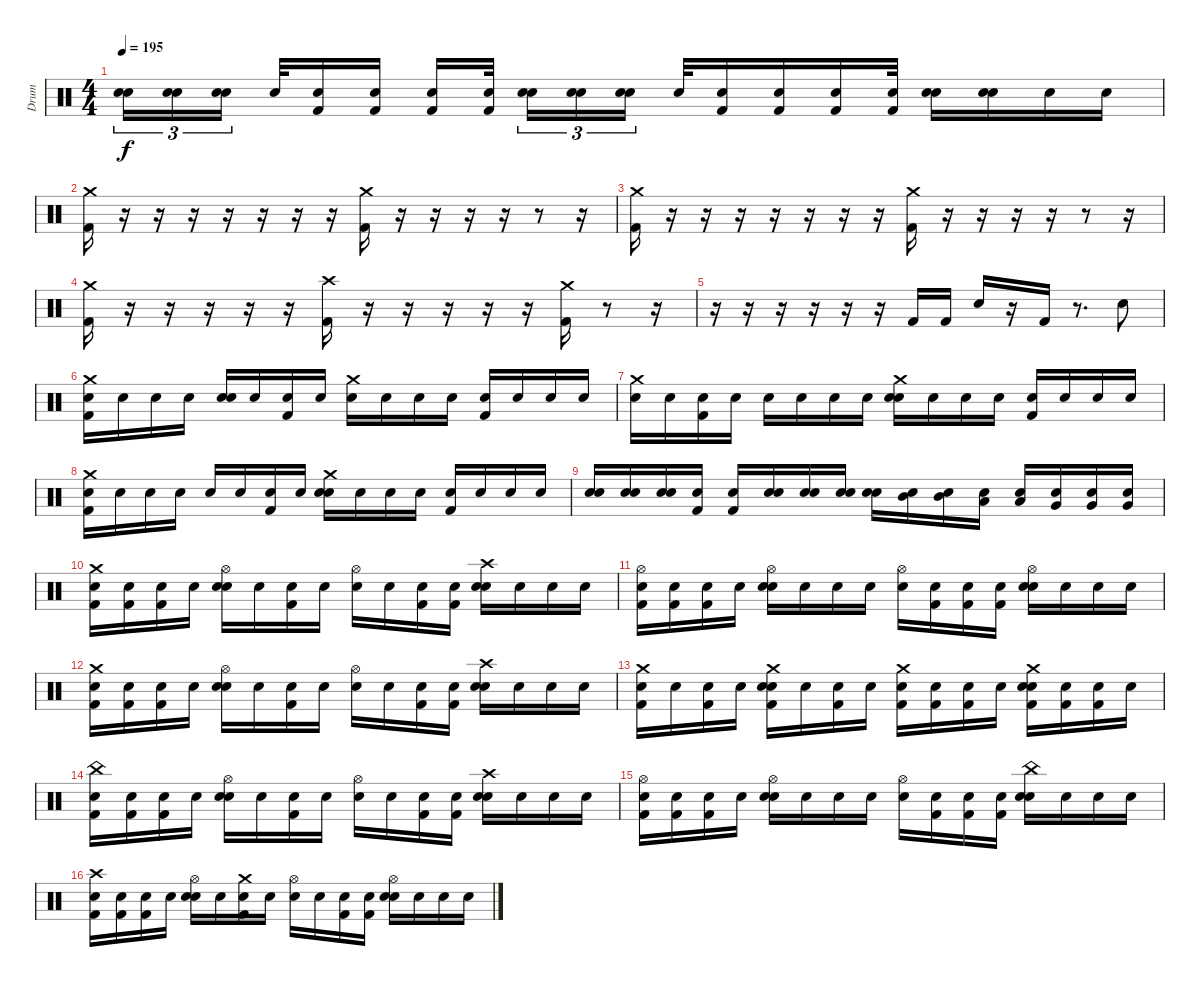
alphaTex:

\track ("Drum" "Drum") {instrument percussion}
\staff {score}
\articulation defaults
\ts (4 4)
\tempo 195
\clef neutral
\ks c
("Snare (hit) 2" "Snare (hit)").16{tu (3 2) dy f} ("Snare (hit) 2" "Snare (hit)").16{tu (3 2)} ("Snare (hit) 2" "Snare (hit)").16{tu (3 2) beam splitsecondary} "Snare (hit)".32 ("Snare (hit)" "Kick (hit) 2").16 ("Snare (hit)" "Kick (hit) 2").16 ("Snare (hit)" "Kick (hit) 2").16 ("Snare (hit)" "Kick (hit) 2").32{beam splitsecondary} ("Snare (hit) 2" "Snare (hit)").16{tu (3 2)} ("Snare (hit) 2" "Snare (hit)").16{tu (3 2)} ("Snare (hit) 2" "Snare (hit)").16{tu (3 2)} "Snare (hit)".32 ("Snare (hit)" "Kick (hit) 2").16 ("Snare (hit)" "Kick (hit) 2").16 ("Snare (hit)" "Kick (hit) 2").16 ("Snare (hit)" "Kick (hit) 2").32 ("Snare (hit) 2" "Snare (hit)").16 ("Snare (hit) 2" "Snare (hit)").16 "Snare (hit) 2".16 "Snare (hit) 2".16 |
("Crash medium (hit)" "Kick (hit) 2").16 r.16 r.16 r.16 r.16 r.16 r.16 r.16 ("Crash medium (hit)" "Kick (hit) 2").16 r.16 r.16 r.16 r.16 r.8 r.16 |
("Crash medium (hit)" "Kick (hit) 2").16 r.16 r.16 r.16 r.16 r.16 r.16 r.16 ("Crash medium (hit)" "Kick (hit) 2").16 r.16 r.16 r.16 r.16 r.8 r.16 |
("Crash medium (hit)" "Kick (hit) 2").16 r.16 r.16 r.16 r.16 r.16 ("Crash high (hit)" "Kick (hit) 2").16 r.16 r.16 r.16 r.16 r.16 ("Crash medium (hit)" "Kick (hit) 2").16 r.8 r.16 |
r.16 r.16 r.16 r.16 r.16 r.16 "Kick (hit) 2".16 "Kick (hit) 2".16 "Snare (hit) 2".16 r.16 "Kick (hit) 2".16 r.8{d} "Snare (hit) 2".8 |
("Crash medium (hit)" "Snare (hit)" "Kick (hit) 2").16 "Snare (hit)".16 "Snare (hit)".16 "Snare (hit)".16 ("Snare (hit)" "Snare (hit) 2").16 "Snare (hit)".16 ("Snare (hit)" "Kick (hit) 2").16 "Snare (hit)".16 ("Crash medium (hit)" "Snare (hit)").16 "Snare (hit)".16 "Snare (hit)".16 "Snare (hit)".16 ("Snare (hit)" "Kick (hit) 2").16 "Snare (hit)".16 "Snare (hit)".16 "Snare (hit)".16 |
("Crash medium (hit)" "Snare (hit)").16 "Snare (hit)".16 ("Snare (hit)" "Kick (hit) 2").16 "Snare (hit)".16 "Snare (hit)".16 "Snare (hit)".16 "Snare (hit)".16 "Snare (hit)".16 ("Crash medium (hit)" "Snare (hit)" "Snare (hit) 2").16 "Snare (hit)".16 "Snare (hit)".16 "Snare (hit)".16 ("Snare (hit)" "Kick (hit) 2").16 "Snare (hit)".16 "Snare (hit)".16 "Snare (hit)".16 |
("Crash medium (hit)" "Snare (hit)" "Kick (hit) 2").16 "Snare (hit)".16 "Snare (hit)".16 "Snare (hit)".16 "Snare (hit)".16 "Snare (hit)".16 ("Snare (hit)" "Kick (hit) 2").16 "Snare (hit)".16 ("Crash medium (hit)" "Snare (hit)" "Snare (hit) 2").16 "Snare (hit)".16 "Snare (hit)".16 "Snare (hit)".16 ("Snare (hit)" "Kick (hit) 2").16 "Snare (hit)".16 "Snare (hit)".16 "Snare (hit)".16 |
("Snare (hit)" "Snare (hit) 2").16 ("Snare (hit)" "Snare (hit) 2").16 ("Snare (hit)" "Snare (hit) 2").16 ("Snare (hit)" "Kick (hit) 2").16 ("Snare (hit)" "Kick (hit) 2").16 ("Snare (hit)" "Snare (hit) 2").16 ("Snare (hit)" "Snare (hit) 2").16 ("Snare (hit)" "Snare (hit) 2").16 ("Snare (hit)" "Snare (hit) 2").16 ("Snare (hit)" "Mid Tom (hit)").16 ("Snare (hit)" "Mid Tom (hit)").16 ("Snare (hit)" "Low Tom (hit)").16 ("Snare (hit)" "Low Tom (hit)").16 ("Snare (hit)" "Very Low Tom (hit)").16 ("Snare (hit)" "Very Low Tom (hit)").16 ("Snare (hit)" "Very Low Tom (hit)").16 |
("Crash medium (hit)" "Snare (hit)" "Kick (hit) 2").16 ("Snare (hit)" "Kick (hit) 2").16 ("Snare (hit)" "Kick (hit) 2").16 "Snare (hit)".16 ("Hi-Hat (open)" "Snare (hit) 2" "Snare (hit)").16 "Snare (hit)".16 ("Snare (hit)" "Kick (hit) 2").16 "Snare (hit)".16 ("Hi-Hat (open)" "Snare (hit)").16 "Snare (hit)".16 ("Snare (hit)" "Kick (hit) 2").16 ("Snare (hit)" "Kick (hit) 2").16 ("Crash high (hit)" "Snare (hit) 2" "Snare (hit)").16 "Snare (hit)".16 "Snare (hit)".16 "Snare (hit)".16 |
("Hi-Hat (open)" "Snare (hit)" "Kick (hit) 2").16 ("Snare (hit)" "Kick (hit) 2").16 ("Snare (hit)" "Kick (hit) 2").16 "Snare (hit)".16 ("Hi-Hat (open)" "Snare (hit) 2" "Snare (hit)").16 "Snare (hit)".16 "Snare (hit)".16 "Snare (hit)".16 ("Hi-Hat (open)" "Snare (hit)").16 ("Snare (hit)" "Kick (hit) 2").16 ("Snare (hit)" "Kick (hit) 2").16 ("Snare (hit)" "Kick (hit) 2").16 ("Hi-Hat (open)" "Snare (hit) 2" "Snare (hit)").16 "Snare (hit)".16 "Snare (hit)".16 "Snare (hit)".16 |
("Crash medium (hit)" "Snare (hit)" "Kick (hit) 2").16 ("Snare (hit)" "Kick (hit) 2").16 ("Snare (hit)" "Kick (hit) 2").16 "Snare (hit)".16 ("Hi-Hat (open)" "Snare (hit) 2" "Snare (hit)").16 "Snare (hit)".16 ("Snare (hit)" "Kick (hit) 2").16 "Snare (hit)".16 ("Hi-Hat (open)" "Snare (hit)").16 "Snare (hit)".16 ("Snare (hit)" "Kick (hit) 2").16 ("Snare (hit)" "Kick (hit) 2").16 ("Crash high (hit)" "Snare (hit) 2" "Snare (hit)").16 "Snare (hit)".16 "Snare (hit)".16 "Snare (hit)".16 |
("Crash medium (hit)" "Snare (hit)" "Kick (hit) 2").16 "Snare (hit)".16 ("Snare (hit)" "Kick (hit) 2").16 "Snare (hit)".16 ("Crash medium (hit)" "Snare (hit) 2" "Snare (hit)" "Kick (hit) 2").16 "Snare (hit)".16 ("Snare (hit)" "Kick (hit) 2").16 "Snare (hit)".16 ("Crash medium (hit)" "Snare (hit)" "Kick (hit) 2").16 ("Snare (hit)" "Kick (hit) 2").16 ("Snare (hit)" "Kick (hit) 2").16 "Snare (hit)".16 ("Crash medium (hit)" "Snare (hit) 2" "Snare (hit)" "Kick (hit) 2").16 ("Snare (hit)" "Kick (hit) 2").16 ("Snare (hit)" "Kick (hit) 2").16 "Snare (hit)".16 |
("China (hit)" "Snare (hit)" "Kick (hit) 2").16 ("Snare (hit)" "Kick (hit) 2").16 ("Snare (hit)" "Kick (hit) 2").16 "Snare (hit)".16 ("Hi-Hat (open)" "Snare (hit) 2" "Snare (hit)").16 "Snare (hit)".16 ("Snare (hit)" "Kick (hit) 2").16 "Snare (hit)".16 ("Hi-Hat (open)" "Snare (hit)").16 "Snare (hit)".16 ("Snare (hit)" "Kick (hit) 2").16 ("Snare (hit)" "Kick (hit) 2").16 ("Crash high (hit)" "Snare (hit) 2" "Snare (hit)").16 "Snare (hit)".16 "Snare (hit)".16 "Snare (hit)".16 |
("Hi-Hat (open)" "Snare (hit)" "Kick (hit) 2").16 ("Snare (hit)" "Kick (hit) 2").16 ("Snare (hit)" "Kick (hit) 2").16 "Snare (hit)".16 ("Hi-Hat (open)" "Snare (hit) 2" "Snare (hit)").16 "Snare (hit)".16 "Snare (hit)".16 "Snare (hit)".16 ("Hi-Hat (open)" "Snare (hit)").16 ("Snare (hit)" "Kick (hit) 2").16 ("Snare (hit)" "Kick (hit) 2").16 ("Snare (hit)" "Kick (hit) 2").16 ("China (hit)" "Snare (hit) 2" "Snare (hit)").16 "Snare (hit)".16 "Snare (hit)".16 "Snare (hit)".16 |
("Crash high (hit)" "Snare (hit)" "Kick (hit) 2").16 ("Snare (hit)" "Kick (hit) 2").16 ("Snare (hit)" "Kick (hit) 2").16 "Snare (hit)".16 ("Hi-Hat (open)" "Snare (hit) 2" "Snare (hit)").16 "Snare (hit)".16 ("Crash medium (hit)" "Snare (hit)" "Kick (hit) 2").16 "Snare (hit)".16 ("Hi-Hat (open)" "Snare (hit)").16 "Snare (hit)".16 ("Snare (hit)" "Kick (hit) 2").16 ("Snare (hit)" "Kick (hit) 2").16 ("Hi-Hat (open)" "Snare (hit) 2" "Snare (hit)").16 "Snare (hit)".16 "Snare (hit)".16 "Snare (hit)".16
